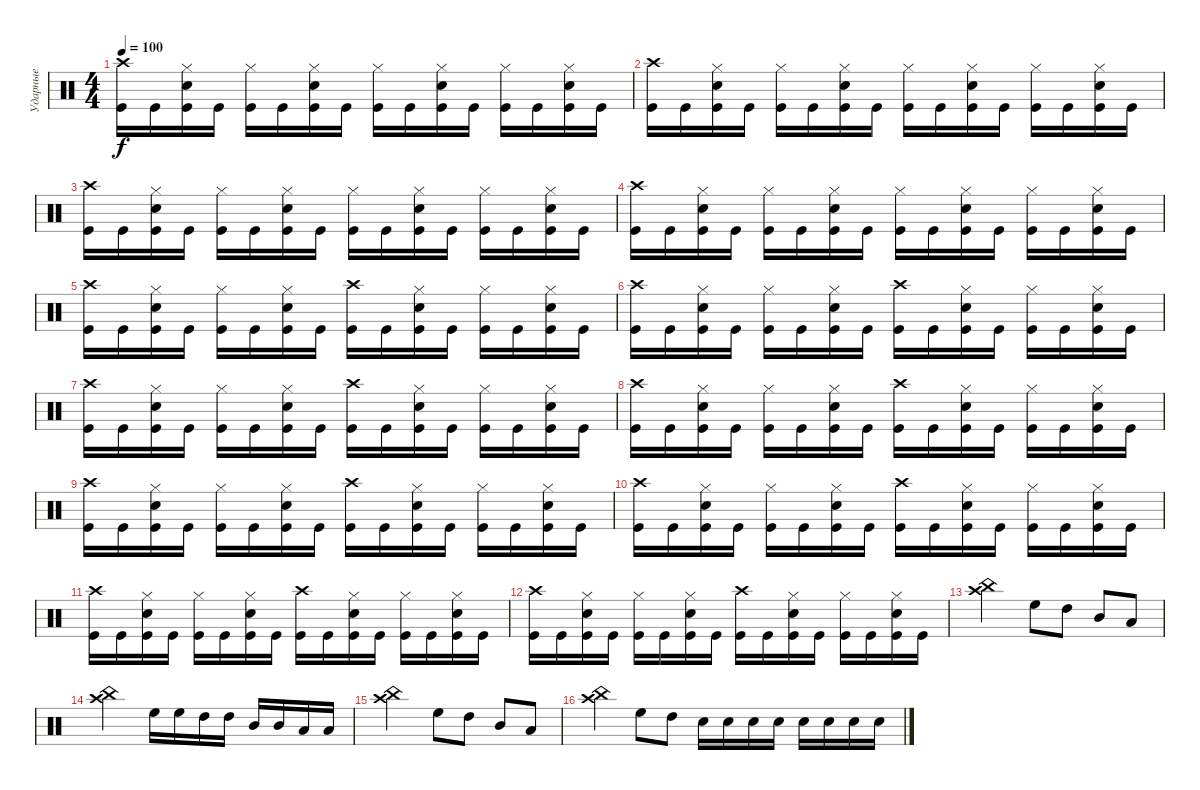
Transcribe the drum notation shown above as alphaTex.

\track ("Ударные" "Ударные") {instrument percussion}
\staff {score}
\articulation defaults
\ts (4 4)
\tempo 100
\clef neutral
\ks c
("Kick (hit)" "Crash high (hit)").16{dy f} "Kick (hit)".16 ("Kick (hit)" "Hi-Hat (closed)" "Snare (hit) 2").16 "Kick (hit)".16 ("Kick (hit)" "Hi-Hat (closed)").16 "Kick (hit)".16 ("Kick (hit)" "Hi-Hat (closed)" "Snare (hit) 2").16 "Kick (hit)".16 ("Kick (hit)" "Hi-Hat (closed)").16 "Kick (hit)".16 ("Kick (hit)" "Hi-Hat (closed)" "Snare (hit) 2").16 "Kick (hit)".16 ("Kick (hit)" "Hi-Hat (closed)").16 "Kick (hit)".16 ("Kick (hit)" "Hi-Hat (closed)" "Snare (hit) 2").16 "Kick (hit)".16 |
("Kick (hit)" "Crash high (hit)").16 "Kick (hit)".16 ("Kick (hit)" "Hi-Hat (closed)" "Snare (hit) 2").16 "Kick (hit)".16 ("Kick (hit)" "Hi-Hat (closed)").16 "Kick (hit)".16 ("Kick (hit)" "Hi-Hat (closed)" "Snare (hit) 2").16 "Kick (hit)".16 ("Kick (hit)" "Hi-Hat (closed)").16 "Kick (hit)".16 ("Kick (hit)" "Hi-Hat (closed)" "Snare (hit) 2").16 "Kick (hit)".16 ("Kick (hit)" "Hi-Hat (closed)").16 "Kick (hit)".16 ("Kick (hit)" "Hi-Hat (closed)" "Snare (hit) 2").16 "Kick (hit)".16 |
("Kick (hit)" "Crash high (hit)").16 "Kick (hit)".16 ("Kick (hit)" "Hi-Hat (closed)" "Snare (hit) 2").16 "Kick (hit)".16 ("Kick (hit)" "Hi-Hat (closed)").16 "Kick (hit)".16 ("Kick (hit)" "Hi-Hat (closed)" "Snare (hit) 2").16 "Kick (hit)".16 ("Kick (hit)" "Hi-Hat (closed)").16 "Kick (hit)".16 ("Kick (hit)" "Hi-Hat (closed)" "Snare (hit) 2").16 "Kick (hit)".16 ("Kick (hit)" "Hi-Hat (closed)").16 "Kick (hit)".16 ("Kick (hit)" "Hi-Hat (closed)" "Snare (hit) 2").16 "Kick (hit)".16 |
("Kick (hit)" "Crash high (hit)").16 "Kick (hit)".16 ("Kick (hit)" "Hi-Hat (closed)" "Snare (hit) 2").16 "Kick (hit)".16 ("Kick (hit)" "Hi-Hat (closed)").16 "Kick (hit)".16 ("Kick (hit)" "Hi-Hat (closed)" "Snare (hit) 2").16 "Kick (hit)".16 ("Kick (hit)" "Hi-Hat (closed)").16 "Kick (hit)".16 ("Kick (hit)" "Hi-Hat (closed)" "Snare (hit) 2").16 "Kick (hit)".16 ("Kick (hit)" "Hi-Hat (closed)").16 "Kick (hit)".16 ("Kick (hit)" "Hi-Hat (closed)" "Snare (hit) 2").16 "Kick (hit)".16 |
("Kick (hit)" "Crash high (hit)").16 "Kick (hit)".16 ("Kick (hit)" "Hi-Hat (closed)" "Snare (hit) 2").16 "Kick (hit)".16 ("Kick (hit)" "Hi-Hat (closed)").16 "Kick (hit)".16 ("Kick (hit)" "Hi-Hat (closed)" "Snare (hit) 2").16 "Kick (hit)".16 ("Kick (hit)" "Crash high (hit)").16 "Kick (hit)".16 ("Kick (hit)" "Hi-Hat (closed)" "Snare (hit) 2").16 "Kick (hit)".16 ("Kick (hit)" "Hi-Hat (closed)").16 "Kick (hit)".16 ("Kick (hit)" "Hi-Hat (closed)" "Snare (hit) 2").16 "Kick (hit)".16 |
("Kick (hit)" "Crash high (hit)").16 "Kick (hit)".16 ("Kick (hit)" "Hi-Hat (closed)" "Snare (hit) 2").16 "Kick (hit)".16 ("Kick (hit)" "Hi-Hat (closed)").16 "Kick (hit)".16 ("Kick (hit)" "Hi-Hat (closed)" "Snare (hit) 2").16 "Kick (hit)".16 ("Kick (hit)" "Crash high (hit)").16 "Kick (hit)".16 ("Kick (hit)" "Hi-Hat (closed)" "Snare (hit) 2").16 "Kick (hit)".16 ("Kick (hit)" "Hi-Hat (closed)").16 "Kick (hit)".16 ("Kick (hit)" "Hi-Hat (closed)" "Snare (hit) 2").16 "Kick (hit)".16 |
("Kick (hit)" "Crash high (hit)").16 "Kick (hit)".16 ("Kick (hit)" "Hi-Hat (closed)" "Snare (hit) 2").16 "Kick (hit)".16 ("Kick (hit)" "Hi-Hat (closed)").16 "Kick (hit)".16 ("Kick (hit)" "Hi-Hat (closed)" "Snare (hit) 2").16 "Kick (hit)".16 ("Kick (hit)" "Crash high (hit)").16 "Kick (hit)".16 ("Kick (hit)" "Hi-Hat (closed)" "Snare (hit) 2").16 "Kick (hit)".16 ("Kick (hit)" "Hi-Hat (closed)").16 "Kick (hit)".16 ("Kick (hit)" "Hi-Hat (closed)" "Snare (hit) 2").16 "Kick (hit)".16 |
("Kick (hit)" "Crash high (hit)").16 "Kick (hit)".16 ("Kick (hit)" "Hi-Hat (closed)" "Snare (hit) 2").16 "Kick (hit)".16 ("Kick (hit)" "Hi-Hat (closed)").16 "Kick (hit)".16 ("Kick (hit)" "Hi-Hat (closed)" "Snare (hit) 2").16 "Kick (hit)".16 ("Kick (hit)" "Crash high (hit)").16 "Kick (hit)".16 ("Kick (hit)" "Hi-Hat (closed)" "Snare (hit) 2").16 "Kick (hit)".16 ("Kick (hit)" "Hi-Hat (closed)").16 "Kick (hit)".16 ("Kick (hit)" "Hi-Hat (closed)" "Snare (hit) 2").16 "Kick (hit)".16 |
("Kick (hit)" "Crash high (hit)").16 "Kick (hit)".16 ("Kick (hit)" "Hi-Hat (closed)" "Snare (hit) 2").16 "Kick (hit)".16 ("Kick (hit)" "Hi-Hat (closed)").16 "Kick (hit)".16 ("Kick (hit)" "Hi-Hat (closed)" "Snare (hit) 2").16 "Kick (hit)".16 ("Kick (hit)" "Crash high (hit)").16 "Kick (hit)".16 ("Kick (hit)" "Hi-Hat (closed)" "Snare (hit) 2").16 "Kick (hit)".16 ("Kick (hit)" "Hi-Hat (closed)").16 "Kick (hit)".16 ("Kick (hit)" "Hi-Hat (closed)" "Snare (hit) 2").16 "Kick (hit)".16 |
("Kick (hit)" "Crash high (hit)").16 "Kick (hit)".16 ("Kick (hit)" "Hi-Hat (closed)" "Snare (hit) 2").16 "Kick (hit)".16 ("Kick (hit)" "Hi-Hat (closed)").16 "Kick (hit)".16 ("Kick (hit)" "Hi-Hat (closed)" "Snare (hit) 2").16 "Kick (hit)".16 ("Kick (hit)" "Crash high (hit)").16 "Kick (hit)".16 ("Kick (hit)" "Hi-Hat (closed)" "Snare (hit) 2").16 "Kick (hit)".16 ("Kick (hit)" "Hi-Hat (closed)").16 "Kick (hit)".16 ("Kick (hit)" "Hi-Hat (closed)" "Snare (hit) 2").16 "Kick (hit)".16 |
("Kick (hit)" "Crash high (hit)").16 "Kick (hit)".16 ("Kick (hit)" "Hi-Hat (closed)" "Snare (hit) 2").16 "Kick (hit)".16 ("Kick (hit)" "Hi-Hat (closed)").16 "Kick (hit)".16 ("Kick (hit)" "Hi-Hat (closed)" "Snare (hit) 2").16 "Kick (hit)".16 ("Kick (hit)" "Crash high (hit)").16 "Kick (hit)".16 ("Kick (hit)" "Hi-Hat (closed)" "Snare (hit) 2").16 "Kick (hit)".16 ("Kick (hit)" "Hi-Hat (closed)").16 "Kick (hit)".16 ("Kick (hit)" "Hi-Hat (closed)" "Snare (hit) 2").16 "Kick (hit)".16 |
("Kick (hit)" "Crash high (hit)").16 "Kick (hit)".16 ("Kick (hit)" "Hi-Hat (closed)" "Snare (hit) 2").16 "Kick (hit)".16 ("Kick (hit)" "Hi-Hat (closed)").16 "Kick (hit)".16 ("Kick (hit)" "Hi-Hat (closed)" "Snare (hit) 2").16 "Kick (hit)".16 ("Kick (hit)" "Crash high (hit)").16 "Kick (hit)".16 ("Kick (hit)" "Hi-Hat (closed)" "Snare (hit) 2").16 "Kick (hit)".16 ("Kick (hit)" "Hi-Hat (closed)").16 "Kick (hit)".16 ("Kick (hit)" "Hi-Hat (closed)" "Snare (hit) 2").16 "Kick (hit)".16 |
("Crash high (hit)" "China (hit)").2 "High Floor Tom (hit)".8 "High Tom (hit)".8 "Mid Tom (hit)".8 "Low Tom (hit)".8 |
("Crash high (hit)" "China (hit)").2 "High Floor Tom (hit)".16 "High Floor Tom (hit)".16 "High Tom (hit)".16 "High Tom (hit)".16 "Mid Tom (hit)".16 "Mid Tom (hit)".16 "Low Tom (hit)".16 "Low Tom (hit)".16 |
("Crash high (hit)" "China (hit)").2 "High Floor Tom (hit)".8 "High Tom (hit)".8 "Mid Tom (hit)".8 "Low Tom (hit)".8 |
("Crash high (hit)" "China (hit)").4 "High Floor Tom (hit)".8 "High Tom (hit)".8 "Snare (hit) 2".16 "Snare (hit) 2".16 "Snare (hit) 2".16 "Snare (hit) 2".16 "Snare (hit) 2".16 "Snare (hit) 2".16 "Snare (hit) 2".16 "Snare (hit) 2".16
